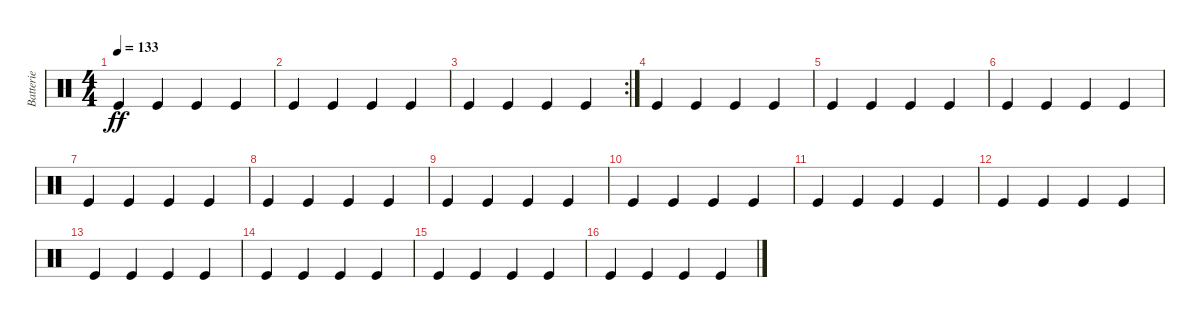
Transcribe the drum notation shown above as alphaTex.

\track ("Batterie" "Batterie") {instrument percussion}
\staff {score}
\articulation defaults
\ts (4 4)
\tempo 133
\clef neutral
\ks c "Kick (hit)".4{dy ff} "Kick (hit)".4 "Kick (hit)".4 "Kick (hit)".4
|
"Kick (hit)".4 "Kick (hit)".4 "Kick (hit)".4 "Kick (hit)".4 |
\rc 2 "Kick (hit)".4 "Kick (hit)".4 "Kick (hit)".4 "Kick (hit)".4
|
"Kick (hit)".4 "Kick (hit)".4 "Kick (hit)".4 "Kick (hit)".4 |
"Kick (hit)".4 "Kick (hit)".4 "Kick (hit)".4 "Kick (hit)".4 |
"Kick (hit)".4 "Kick (hit)".4 "Kick (hit)".4 "Kick (hit)".4 |
"Kick (hit)".4 "Kick (hit)".4 "Kick (hit)".4 "Kick (hit)".4 |
"Kick (hit)".4 "Kick (hit)".4 "Kick (hit)".4 "Kick (hit)".4 |
"Kick (hit)".4 "Kick (hit)".4 "Kick (hit)".4 "Kick (hit)".4 |
"Kick (hit)".4 "Kick (hit)".4 "Kick (hit)".4 "Kick (hit)".4 |
"Kick (hit)".4 "Kick (hit)".4 "Kick (hit)".4 "Kick (hit)".4 |
"Kick (hit)".4 "Kick (hit)".4 "Kick (hit)".4 "Kick (hit)".4 |
"Kick (hit)".4 "Kick (hit)".4 "Kick (hit)".4 "Kick (hit)".4 |
"Kick (hit)".4 "Kick (hit)".4 "Kick (hit)".4 "Kick (hit)".4 |
"Kick (hit)".4 "Kick (hit)".4 "Kick (hit)".4 "Kick (hit)".4 |
"Kick (hit)".4 "Kick (hit)".4 "Kick (hit)".4 "Kick (hit)".4
